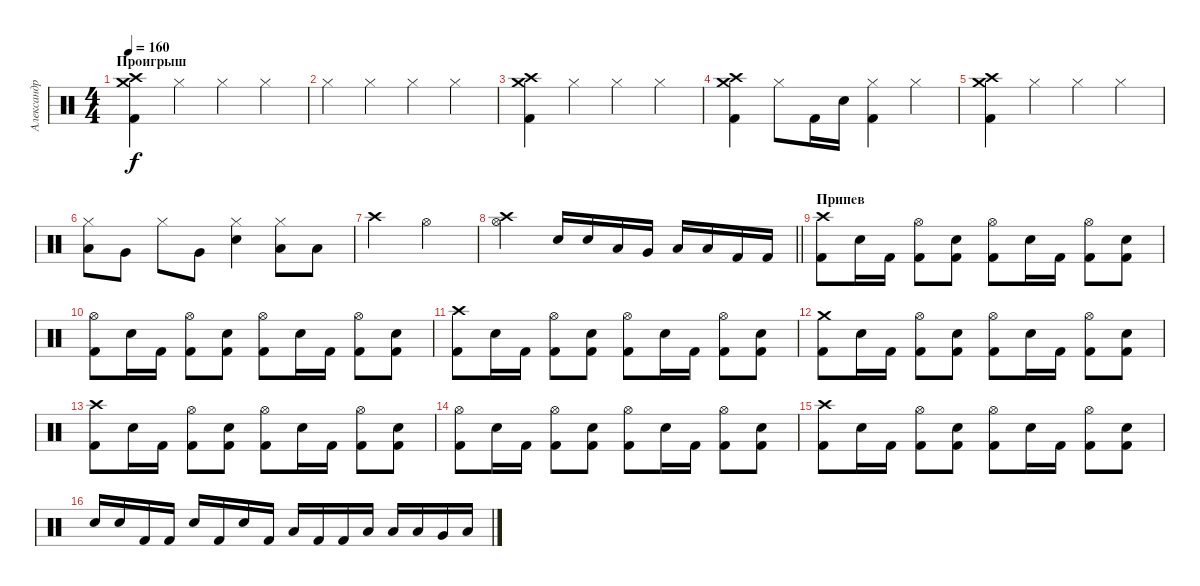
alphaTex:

\track ("Александр Карпухин" "Александр ") {instrument percussion}
\staff {score}
\articulation defaults
\ts (4 4)
\section ("" "Проигрыш")
\tempo 160
\clef neutral
\ks c
("Crash high (hit)" "Crash medium (hit)" "Kick (hit) 2").4{dy f} "Hi-Hat (closed)".4 "Hi-Hat (closed)".4 "Hi-Hat (closed)".4 |
"Hi-Hat (closed)".4 "Hi-Hat (closed)".4 "Hi-Hat (closed)".4 "Hi-Hat (closed)".4 |
("Crash high (hit)" "Crash medium (hit)" "Kick (hit) 2").4 "Hi-Hat (closed)".4 "Hi-Hat (closed)".4 "Hi-Hat (closed)".4 |
("Crash high (hit)" "Crash medium (hit)" "Kick (hit) 2").4 "Hi-Hat (closed)".8 "Kick (hit) 2".16 "Electric Snare (hit)".16 ("Hi-Hat (closed)" "Kick (hit) 2").4 "Hi-Hat (closed)".4 |
("Crash high (hit)" "Crash medium (hit)" "Kick (hit) 2").4 "Hi-Hat (closed)".4 "Hi-Hat (closed)".4 "Hi-Hat (closed)".4 |
("Hi-Hat (closed)" "Low Tom (hit)").8 "Very Low Tom (hit)".8 "Hi-Hat (closed)".8 "Very Low Tom (hit)".8 ("Hi-Hat (closed)" "Electric Snare (hit)").4 ("Hi-Hat (closed)" "Low Tom (hit)").8 "Low Tom (hit)".8 |
"Crash high (hit)".2 "Hi-Hat (open)".2 |
\barLineRight lightlight
("Hi-Hat (open)" "Crash high (hit)").2 "Electric Snare (hit)".16 "Electric Snare (hit)".16 "Low Tom (hit)".16 "Very Low Tom (hit)".16 "Low Floor Tom (hit)".16 "Low Floor Tom (hit)".16 "Kick (hit) 2".16 "Kick (hit) 2".16 |
\section ("" "Припев")
("Crash high (hit)" "Kick (hit) 2").8 "Electric Snare (hit)".16 "Kick (hit) 2".16 ("Hi-Hat (open)" "Kick (hit) 2").8 ("Electric Snare (hit)" "Kick (hit) 2").8 ("Hi-Hat (open)" "Kick (hit) 2").8 "Electric Snare (hit)".16 "Kick (hit) 2".16 ("Hi-Hat (open)" "Kick (hit) 2").8 ("Electric Snare (hit)" "Kick (hit) 2").8 |
("Hi-Hat (open)" "Kick (hit) 2").8 "Electric Snare (hit)".16 "Kick (hit) 2".16 ("Hi-Hat (open)" "Kick (hit) 2").8 ("Electric Snare (hit)" "Kick (hit) 2").8 ("Hi-Hat (open)" "Kick (hit) 2").8 "Electric Snare (hit)".16 "Kick (hit) 2".16 ("Hi-Hat (open)" "Kick (hit) 2").8 ("Electric Snare (hit)" "Kick (hit) 2").8 |
("Crash high (hit)" "Kick (hit) 2").8 "Electric Snare (hit)".16 "Kick (hit) 2".16 ("Hi-Hat (open)" "Kick (hit) 2").8 ("Electric Snare (hit)" "Kick (hit) 2").8 ("Hi-Hat (open)" "Kick (hit) 2").8 "Electric Snare (hit)".16 "Kick (hit) 2".16 ("Hi-Hat (open)" "Kick (hit) 2").8 ("Electric Snare (hit)" "Kick (hit) 2").8 |
("Crash medium (hit)" "Kick (hit) 2").8 "Electric Snare (hit)".16 "Kick (hit) 2".16 ("Hi-Hat (open)" "Kick (hit) 2").8 ("Electric Snare (hit)" "Kick (hit) 2").8 ("Hi-Hat (open)" "Kick (hit) 2").8 "Electric Snare (hit)".16 "Kick (hit) 2".16 ("Hi-Hat (open)" "Kick (hit) 2").8 ("Electric Snare (hit)" "Kick (hit) 2").8 |
("Crash high (hit)" "Kick (hit) 2").8 "Electric Snare (hit)".16 "Kick (hit) 2".16 ("Hi-Hat (open)" "Kick (hit) 2").8 ("Electric Snare (hit)" "Kick (hit) 2").8 ("Hi-Hat (open)" "Kick (hit) 2").8 "Electric Snare (hit)".16 "Kick (hit) 2".16 ("Hi-Hat (open)" "Kick (hit) 2").8 ("Electric Snare (hit)" "Kick (hit) 2").8 |
("Hi-Hat (open)" "Kick (hit) 2").8 "Electric Snare (hit)".16 "Kick (hit) 2".16 ("Hi-Hat (open)" "Kick (hit) 2").8 ("Electric Snare (hit)" "Kick (hit) 2").8 ("Hi-Hat (open)" "Kick (hit) 2").8 "Electric Snare (hit)".16 "Kick (hit) 2".16 ("Hi-Hat (open)" "Kick (hit) 2").8 ("Electric Snare (hit)" "Kick (hit) 2").8 |
("Crash high (hit)" "Kick (hit) 2").8 "Electric Snare (hit)".16 "Kick (hit) 2".16 ("Hi-Hat (open)" "Kick (hit) 2").8 ("Electric Snare (hit)" "Kick (hit) 2").8 ("Hi-Hat (open)" "Kick (hit) 2").8 "Electric Snare (hit)".16 "Kick (hit) 2".16 ("Hi-Hat (open)" "Kick (hit) 2").8 ("Electric Snare (hit)" "Kick (hit) 2").8 |
"Electric Snare (hit)".16 "Electric Snare (hit)".16 "Kick (hit) 2".16 "Kick (hit) 2".16 "Electric Snare (hit)".16 "Kick (hit) 2".16 "Electric Snare (hit)".16 "Kick (hit) 2".16 "Low Floor Tom (hit)".16 "Kick (hit) 2".16 "Kick (hit) 2".16 "Low Floor Tom (hit)".16 "Low Tom (hit)".16 "Low Tom (hit)".16 "Very Low Tom (hit)".16 "Low Floor Tom (hit)".16
